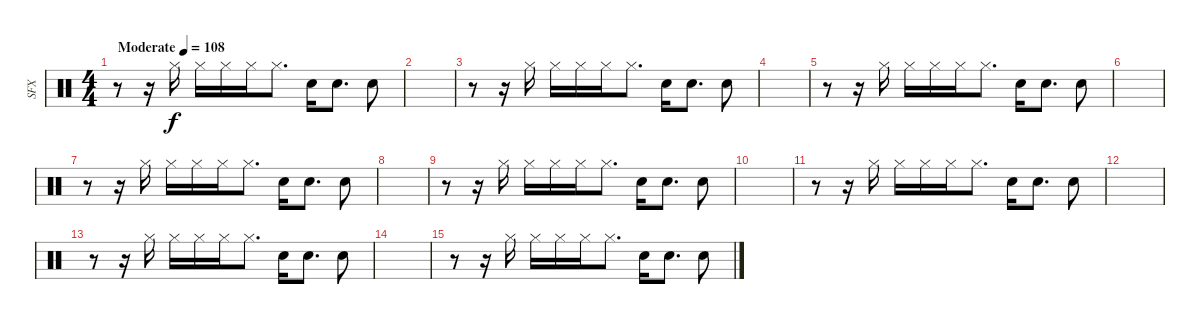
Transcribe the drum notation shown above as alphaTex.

\track ("SFX" "SFX") {instrument percussion}
\staff {score}
\articulation defaults
\ts (4 4)
\tempo (108 "Moderate")
\clef neutral
\ks c
r.8{dy f} r.16 "Hi-Hat (closed)".16 "Hi-Hat (closed)".16 "Hi-Hat (closed)".16 "Hi-Hat (closed)".16 "Hi-Hat (closed)".8{d} "Hand Clap (hit)".16 "Hand Clap (hit)".8{d} "Hand Clap (hit)".8 |
|
r.8 r.16 "Hi-Hat (closed)".16 "Hi-Hat (closed)".16 "Hi-Hat (closed)".16 "Hi-Hat (closed)".16 "Hi-Hat (closed)".8{d} "Hand Clap (hit)".16 "Hand Clap (hit)".8{d} "Hand Clap (hit)".8 |
|
r.8 r.16 "Hi-Hat (closed)".16 "Hi-Hat (closed)".16 "Hi-Hat (closed)".16 "Hi-Hat (closed)".16 "Hi-Hat (closed)".8{d} "Hand Clap (hit)".16 "Hand Clap (hit)".8{d} "Hand Clap (hit)".8 |
|
r.8 r.16 "Hi-Hat (closed)".16 "Hi-Hat (closed)".16 "Hi-Hat (closed)".16 "Hi-Hat (closed)".16 "Hi-Hat (closed)".8{d} "Hand Clap (hit)".16 "Hand Clap (hit)".8{d} "Hand Clap (hit)".8 |
|
r.8 r.16 "Hi-Hat (closed)".16 "Hi-Hat (closed)".16 "Hi-Hat (closed)".16 "Hi-Hat (closed)".16 "Hi-Hat (closed)".8{d} "Hand Clap (hit)".16 "Hand Clap (hit)".8{d} "Hand Clap (hit)".8 |
|
r.8 r.16 "Hi-Hat (closed)".16 "Hi-Hat (closed)".16 "Hi-Hat (closed)".16 "Hi-Hat (closed)".16 "Hi-Hat (closed)".8{d} "Hand Clap (hit)".16 "Hand Clap (hit)".8{d} "Hand Clap (hit)".8 |
|
r.8 r.16 "Hi-Hat (closed)".16 "Hi-Hat (closed)".16 "Hi-Hat (closed)".16 "Hi-Hat (closed)".16 "Hi-Hat (closed)".8{d} "Hand Clap (hit)".16 "Hand Clap (hit)".8{d} "Hand Clap (hit)".8 |
|
r.8 r.16 "Hi-Hat (closed)".16 "Hi-Hat (closed)".16 "Hi-Hat (closed)".16 "Hi-Hat (closed)".16 "Hi-Hat (closed)".8{d} "Hand Clap (hit)".16 "Hand Clap (hit)".8{d} "Hand Clap (hit)".8
